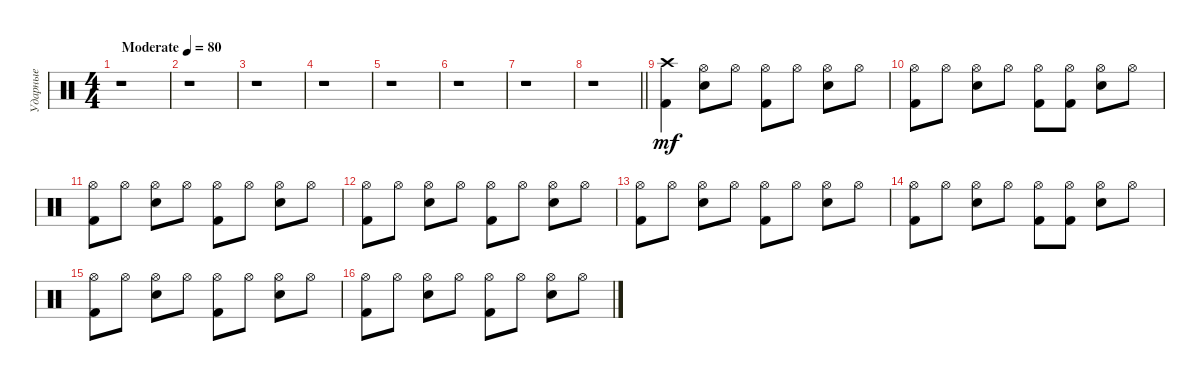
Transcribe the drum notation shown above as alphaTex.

\track ("Ударные" "Ударные") {instrument percussion}
\staff {score}
\articulation defaults
\ts (4 4)
\tempo (80 "Moderate")
\clef neutral
\ks c
r.1{dy mf} |
r.1 |
r.1 |
r.1 |
r.1 |
r.1 |
r.1 |
\barLineRight lightlight
r.1 |
("Kick (hit) 2" "Crash high (hit)").4 ("Snare (hit) 2" "Hi-Hat (open)").8 "Hi-Hat (open)".8 ("Kick (hit) 2" "Hi-Hat (open)").8 "Hi-Hat (open)".8 ("Snare (hit) 2" "Hi-Hat (open)").8 "Hi-Hat (open)".8 |
("Kick (hit) 2" "Hi-Hat (open)").8 "Hi-Hat (open)".8 ("Snare (hit) 2" "Hi-Hat (open)").8 "Hi-Hat (open)".8 ("Kick (hit) 2" "Hi-Hat (open)").8 ("Kick (hit) 2" "Hi-Hat (open)").8 ("Snare (hit) 2" "Hi-Hat (open)").8 "Hi-Hat (open)".8 |
("Kick (hit) 2" "Hi-Hat (open)").8 "Hi-Hat (open)".8 ("Snare (hit) 2" "Hi-Hat (open)").8 "Hi-Hat (open)".8 ("Kick (hit) 2" "Hi-Hat (open)").8 "Hi-Hat (open)".8 ("Snare (hit) 2" "Hi-Hat (open)").8 "Hi-Hat (open)".8 |
("Kick (hit) 2" "Hi-Hat (open)").8 "Hi-Hat (open)".8 ("Snare (hit) 2" "Hi-Hat (open)").8 "Hi-Hat (open)".8 ("Kick (hit) 2" "Hi-Hat (open)").8 "Hi-Hat (open)".8 ("Snare (hit) 2" "Hi-Hat (open)").8 "Hi-Hat (open)".8 |
("Kick (hit) 2" "Hi-Hat (open)").8 "Hi-Hat (open)".8 ("Snare (hit) 2" "Hi-Hat (open)").8 "Hi-Hat (open)".8 ("Kick (hit) 2" "Hi-Hat (open)").8 "Hi-Hat (open)".8 ("Snare (hit) 2" "Hi-Hat (open)").8 "Hi-Hat (open)".8 |
("Kick (hit) 2" "Hi-Hat (open)").8 "Hi-Hat (open)".8 ("Snare (hit) 2" "Hi-Hat (open)").8 "Hi-Hat (open)".8 ("Kick (hit) 2" "Hi-Hat (open)").8 ("Kick (hit) 2" "Hi-Hat (open)").8 ("Snare (hit) 2" "Hi-Hat (open)").8 "Hi-Hat (open)".8 |
("Kick (hit) 2" "Hi-Hat (open)").8 "Hi-Hat (open)".8 ("Snare (hit) 2" "Hi-Hat (open)").8 "Hi-Hat (open)".8 ("Kick (hit) 2" "Hi-Hat (open)").8 "Hi-Hat (open)".8 ("Snare (hit) 2" "Hi-Hat (open)").8 "Hi-Hat (open)".8 |
("Kick (hit) 2" "Hi-Hat (open)").8 "Hi-Hat (open)".8 ("Snare (hit) 2" "Hi-Hat (open)").8 "Hi-Hat (open)".8 ("Kick (hit) 2" "Hi-Hat (open)").8 "Hi-Hat (open)".8 ("Snare (hit) 2" "Hi-Hat (open)").8 "Hi-Hat (open)".8
